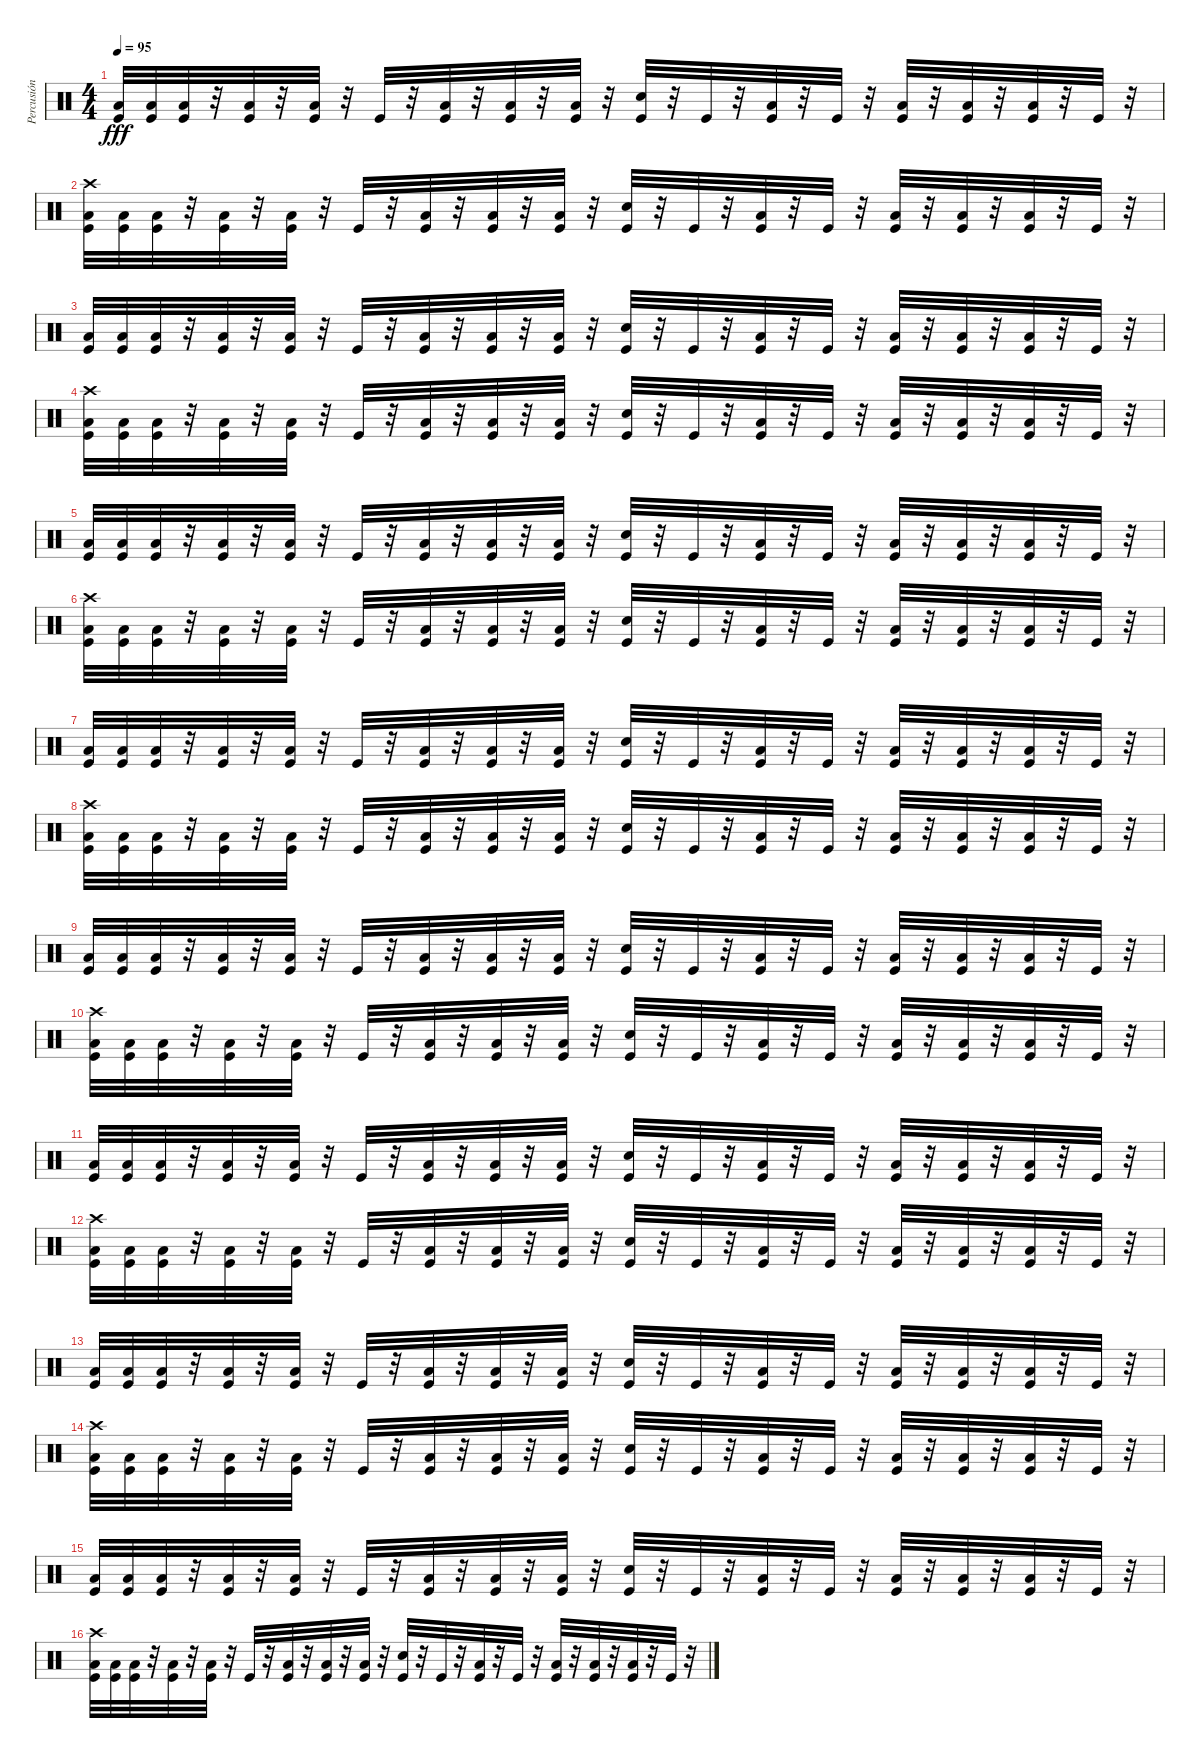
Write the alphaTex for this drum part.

\track ("Percusión" "Percusión") {instrument percussion}
\staff {score}
\articulation defaults
\ts (4 4)
\tempo 95
\clef neutral
\ks c
("Low Floor Tom (hit)" "Kick (hit)").32{dy fff} ("Low Floor Tom (hit)" "Kick (hit)").32 ("Low Floor Tom (hit)" "Kick (hit)").32 r.32 ("Low Floor Tom (hit)" "Kick (hit)").32 r.32 ("Low Floor Tom (hit)" "Kick (hit)").32 r.32 "Kick (hit)".32 r.32 ("Low Floor Tom (hit)" "Kick (hit)").32 r.32 ("Low Floor Tom (hit)" "Kick (hit)").32 r.32 ("Low Floor Tom (hit)" "Kick (hit)").32 r.32 ("Snare (hit) 2" "Kick (hit)").32 r.32 "Kick (hit)".32 r.32 ("Low Floor Tom (hit)" "Kick (hit)").32 r.32 "Kick (hit)".32 r.32 ("Low Floor Tom (hit)" "Kick (hit)").32 r.32 ("Low Floor Tom (hit)" "Kick (hit)").32 r.32 ("Low Floor Tom (hit)" "Kick (hit)").32 r.32 "Kick (hit)".32 r.32 |
("Crash high (hit)" "Low Floor Tom (hit)" "Kick (hit)").32 ("Low Floor Tom (hit)" "Kick (hit)").32 ("Low Floor Tom (hit)" "Kick (hit)").32 r.32 ("Low Floor Tom (hit)" "Kick (hit)").32 r.32 ("Low Floor Tom (hit)" "Kick (hit)").32 r.32 "Kick (hit)".32 r.32 ("Low Floor Tom (hit)" "Kick (hit)").32 r.32 ("Low Floor Tom (hit)" "Kick (hit)").32 r.32 ("Low Floor Tom (hit)" "Kick (hit)").32 r.32 ("Snare (hit) 2" "Kick (hit)").32 r.32 "Kick (hit)".32 r.32 ("Low Floor Tom (hit)" "Kick (hit)").32 r.32 "Kick (hit)".32 r.32 ("Low Floor Tom (hit)" "Kick (hit)").32 r.32 ("Low Floor Tom (hit)" "Kick (hit)").32 r.32 ("Low Floor Tom (hit)" "Kick (hit)").32 r.32 "Kick (hit)".32 r.32 |
("Low Floor Tom (hit)" "Kick (hit)").32 ("Low Floor Tom (hit)" "Kick (hit)").32 ("Low Floor Tom (hit)" "Kick (hit)").32 r.32 ("Low Floor Tom (hit)" "Kick (hit)").32 r.32 ("Low Floor Tom (hit)" "Kick (hit)").32 r.32 "Kick (hit)".32 r.32 ("Low Floor Tom (hit)" "Kick (hit)").32 r.32 ("Low Floor Tom (hit)" "Kick (hit)").32 r.32 ("Low Floor Tom (hit)" "Kick (hit)").32 r.32 ("Snare (hit) 2" "Kick (hit)").32 r.32 "Kick (hit)".32 r.32 ("Low Floor Tom (hit)" "Kick (hit)").32 r.32 "Kick (hit)".32 r.32 ("Low Floor Tom (hit)" "Kick (hit)").32 r.32 ("Low Floor Tom (hit)" "Kick (hit)").32 r.32 ("Low Floor Tom (hit)" "Kick (hit)").32 r.32 "Kick (hit)".32 r.32 |
("Crash high (hit)" "Low Floor Tom (hit)" "Kick (hit)").32 ("Low Floor Tom (hit)" "Kick (hit)").32 ("Low Floor Tom (hit)" "Kick (hit)").32 r.32 ("Low Floor Tom (hit)" "Kick (hit)").32 r.32 ("Low Floor Tom (hit)" "Kick (hit)").32 r.32 "Kick (hit)".32 r.32 ("Low Floor Tom (hit)" "Kick (hit)").32 r.32 ("Low Floor Tom (hit)" "Kick (hit)").32 r.32 ("Low Floor Tom (hit)" "Kick (hit)").32 r.32 ("Snare (hit) 2" "Kick (hit)").32 r.32 "Kick (hit)".32 r.32 ("Low Floor Tom (hit)" "Kick (hit)").32 r.32 "Kick (hit)".32 r.32 ("Low Floor Tom (hit)" "Kick (hit)").32 r.32 ("Low Floor Tom (hit)" "Kick (hit)").32 r.32 ("Low Floor Tom (hit)" "Kick (hit)").32 r.32 "Kick (hit)".32 r.32 |
("Low Floor Tom (hit)" "Kick (hit)").32 ("Low Floor Tom (hit)" "Kick (hit)").32 ("Low Floor Tom (hit)" "Kick (hit)").32 r.32 ("Low Floor Tom (hit)" "Kick (hit)").32 r.32 ("Low Floor Tom (hit)" "Kick (hit)").32 r.32 "Kick (hit)".32 r.32 ("Low Floor Tom (hit)" "Kick (hit)").32 r.32 ("Low Floor Tom (hit)" "Kick (hit)").32 r.32 ("Low Floor Tom (hit)" "Kick (hit)").32 r.32 ("Snare (hit) 2" "Kick (hit)").32 r.32 "Kick (hit)".32 r.32 ("Low Floor Tom (hit)" "Kick (hit)").32 r.32 "Kick (hit)".32 r.32 ("Low Floor Tom (hit)" "Kick (hit)").32 r.32 ("Low Floor Tom (hit)" "Kick (hit)").32 r.32 ("Low Floor Tom (hit)" "Kick (hit)").32 r.32 "Kick (hit)".32 r.32 |
("Crash high (hit)" "Low Floor Tom (hit)" "Kick (hit)").32 ("Low Floor Tom (hit)" "Kick (hit)").32 ("Low Floor Tom (hit)" "Kick (hit)").32 r.32 ("Low Floor Tom (hit)" "Kick (hit)").32 r.32 ("Low Floor Tom (hit)" "Kick (hit)").32 r.32 "Kick (hit)".32 r.32 ("Low Floor Tom (hit)" "Kick (hit)").32 r.32 ("Low Floor Tom (hit)" "Kick (hit)").32 r.32 ("Low Floor Tom (hit)" "Kick (hit)").32 r.32 ("Snare (hit) 2" "Kick (hit)").32 r.32 "Kick (hit)".32 r.32 ("Low Floor Tom (hit)" "Kick (hit)").32 r.32 "Kick (hit)".32 r.32 ("Low Floor Tom (hit)" "Kick (hit)").32 r.32 ("Low Floor Tom (hit)" "Kick (hit)").32 r.32 ("Low Floor Tom (hit)" "Kick (hit)").32 r.32 "Kick (hit)".32 r.32 |
("Low Floor Tom (hit)" "Kick (hit)").32 ("Low Floor Tom (hit)" "Kick (hit)").32 ("Low Floor Tom (hit)" "Kick (hit)").32 r.32 ("Low Floor Tom (hit)" "Kick (hit)").32 r.32 ("Low Floor Tom (hit)" "Kick (hit)").32 r.32 "Kick (hit)".32 r.32 ("Low Floor Tom (hit)" "Kick (hit)").32 r.32 ("Low Floor Tom (hit)" "Kick (hit)").32 r.32 ("Low Floor Tom (hit)" "Kick (hit)").32 r.32 ("Snare (hit) 2" "Kick (hit)").32 r.32 "Kick (hit)".32 r.32 ("Low Floor Tom (hit)" "Kick (hit)").32 r.32 "Kick (hit)".32 r.32 ("Low Floor Tom (hit)" "Kick (hit)").32 r.32 ("Low Floor Tom (hit)" "Kick (hit)").32 r.32 ("Low Floor Tom (hit)" "Kick (hit)").32 r.32 "Kick (hit)".32 r.32 |
("Crash high (hit)" "Low Floor Tom (hit)" "Kick (hit)").32 ("Low Floor Tom (hit)" "Kick (hit)").32 ("Low Floor Tom (hit)" "Kick (hit)").32 r.32 ("Low Floor Tom (hit)" "Kick (hit)").32 r.32 ("Low Floor Tom (hit)" "Kick (hit)").32 r.32 "Kick (hit)".32 r.32 ("Low Floor Tom (hit)" "Kick (hit)").32 r.32 ("Low Floor Tom (hit)" "Kick (hit)").32 r.32 ("Low Floor Tom (hit)" "Kick (hit)").32 r.32 ("Snare (hit) 2" "Kick (hit)").32 r.32 "Kick (hit)".32 r.32 ("Low Floor Tom (hit)" "Kick (hit)").32 r.32 "Kick (hit)".32 r.32 ("Low Floor Tom (hit)" "Kick (hit)").32 r.32 ("Low Floor Tom (hit)" "Kick (hit)").32 r.32 ("Low Floor Tom (hit)" "Kick (hit)").32 r.32 "Kick (hit)".32 r.32 |
("Low Floor Tom (hit)" "Kick (hit)").32 ("Low Floor Tom (hit)" "Kick (hit)").32 ("Low Floor Tom (hit)" "Kick (hit)").32 r.32 ("Low Floor Tom (hit)" "Kick (hit)").32 r.32 ("Low Floor Tom (hit)" "Kick (hit)").32 r.32 "Kick (hit)".32 r.32 ("Low Floor Tom (hit)" "Kick (hit)").32 r.32 ("Low Floor Tom (hit)" "Kick (hit)").32 r.32 ("Low Floor Tom (hit)" "Kick (hit)").32 r.32 ("Snare (hit) 2" "Kick (hit)").32 r.32 "Kick (hit)".32 r.32 ("Low Floor Tom (hit)" "Kick (hit)").32 r.32 "Kick (hit)".32 r.32 ("Low Floor Tom (hit)" "Kick (hit)").32 r.32 ("Low Floor Tom (hit)" "Kick (hit)").32 r.32 ("Low Floor Tom (hit)" "Kick (hit)").32 r.32 "Kick (hit)".32 r.32 |
("Crash high (hit)" "Low Floor Tom (hit)" "Kick (hit)").32 ("Low Floor Tom (hit)" "Kick (hit)").32 ("Low Floor Tom (hit)" "Kick (hit)").32 r.32 ("Low Floor Tom (hit)" "Kick (hit)").32 r.32 ("Low Floor Tom (hit)" "Kick (hit)").32 r.32 "Kick (hit)".32 r.32 ("Low Floor Tom (hit)" "Kick (hit)").32 r.32 ("Low Floor Tom (hit)" "Kick (hit)").32 r.32 ("Low Floor Tom (hit)" "Kick (hit)").32 r.32 ("Snare (hit) 2" "Kick (hit)").32 r.32 "Kick (hit)".32 r.32 ("Low Floor Tom (hit)" "Kick (hit)").32 r.32 "Kick (hit)".32 r.32 ("Low Floor Tom (hit)" "Kick (hit)").32 r.32 ("Low Floor Tom (hit)" "Kick (hit)").32 r.32 ("Low Floor Tom (hit)" "Kick (hit)").32 r.32 "Kick (hit)".32 r.32 |
("Low Floor Tom (hit)" "Kick (hit)").32 ("Low Floor Tom (hit)" "Kick (hit)").32 ("Low Floor Tom (hit)" "Kick (hit)").32 r.32 ("Low Floor Tom (hit)" "Kick (hit)").32 r.32 ("Low Floor Tom (hit)" "Kick (hit)").32 r.32 "Kick (hit)".32 r.32 ("Low Floor Tom (hit)" "Kick (hit)").32 r.32 ("Low Floor Tom (hit)" "Kick (hit)").32 r.32 ("Low Floor Tom (hit)" "Kick (hit)").32 r.32 ("Snare (hit) 2" "Kick (hit)").32 r.32 "Kick (hit)".32 r.32 ("Low Floor Tom (hit)" "Kick (hit)").32 r.32 "Kick (hit)".32 r.32 ("Low Floor Tom (hit)" "Kick (hit)").32 r.32 ("Low Floor Tom (hit)" "Kick (hit)").32 r.32 ("Low Floor Tom (hit)" "Kick (hit)").32 r.32 "Kick (hit)".32 r.32 |
("Crash high (hit)" "Low Floor Tom (hit)" "Kick (hit)").32 ("Low Floor Tom (hit)" "Kick (hit)").32 ("Low Floor Tom (hit)" "Kick (hit)").32 r.32 ("Low Floor Tom (hit)" "Kick (hit)").32 r.32 ("Low Floor Tom (hit)" "Kick (hit)").32 r.32 "Kick (hit)".32 r.32 ("Low Floor Tom (hit)" "Kick (hit)").32 r.32 ("Low Floor Tom (hit)" "Kick (hit)").32 r.32 ("Low Floor Tom (hit)" "Kick (hit)").32 r.32 ("Snare (hit) 2" "Kick (hit)").32 r.32 "Kick (hit)".32 r.32 ("Low Floor Tom (hit)" "Kick (hit)").32 r.32 "Kick (hit)".32 r.32 ("Low Floor Tom (hit)" "Kick (hit)").32 r.32 ("Low Floor Tom (hit)" "Kick (hit)").32 r.32 ("Low Floor Tom (hit)" "Kick (hit)").32 r.32 "Kick (hit)".32 r.32 |
("Low Floor Tom (hit)" "Kick (hit)").32 ("Low Floor Tom (hit)" "Kick (hit)").32 ("Low Floor Tom (hit)" "Kick (hit)").32 r.32 ("Low Floor Tom (hit)" "Kick (hit)").32 r.32 ("Low Floor Tom (hit)" "Kick (hit)").32 r.32 "Kick (hit)".32 r.32 ("Low Floor Tom (hit)" "Kick (hit)").32 r.32 ("Low Floor Tom (hit)" "Kick (hit)").32 r.32 ("Low Floor Tom (hit)" "Kick (hit)").32 r.32 ("Snare (hit) 2" "Kick (hit)").32 r.32 "Kick (hit)".32 r.32 ("Low Floor Tom (hit)" "Kick (hit)").32 r.32 "Kick (hit)".32 r.32 ("Low Floor Tom (hit)" "Kick (hit)").32 r.32 ("Low Floor Tom (hit)" "Kick (hit)").32 r.32 ("Low Floor Tom (hit)" "Kick (hit)").32 r.32 "Kick (hit)".32 r.32 |
("Crash high (hit)" "Low Floor Tom (hit)" "Kick (hit)").32 ("Low Floor Tom (hit)" "Kick (hit)").32 ("Low Floor Tom (hit)" "Kick (hit)").32 r.32 ("Low Floor Tom (hit)" "Kick (hit)").32 r.32 ("Low Floor Tom (hit)" "Kick (hit)").32 r.32 "Kick (hit)".32 r.32 ("Low Floor Tom (hit)" "Kick (hit)").32 r.32 ("Low Floor Tom (hit)" "Kick (hit)").32 r.32 ("Low Floor Tom (hit)" "Kick (hit)").32 r.32 ("Snare (hit) 2" "Kick (hit)").32 r.32 "Kick (hit)".32 r.32 ("Low Floor Tom (hit)" "Kick (hit)").32 r.32 "Kick (hit)".32 r.32 ("Low Floor Tom (hit)" "Kick (hit)").32 r.32 ("Low Floor Tom (hit)" "Kick (hit)").32 r.32 ("Low Floor Tom (hit)" "Kick (hit)").32 r.32 "Kick (hit)".32 r.32 |
("Low Floor Tom (hit)" "Kick (hit)").32 ("Low Floor Tom (hit)" "Kick (hit)").32 ("Low Floor Tom (hit)" "Kick (hit)").32 r.32 ("Low Floor Tom (hit)" "Kick (hit)").32 r.32 ("Low Floor Tom (hit)" "Kick (hit)").32 r.32 "Kick (hit)".32 r.32 ("Low Floor Tom (hit)" "Kick (hit)").32 r.32 ("Low Floor Tom (hit)" "Kick (hit)").32 r.32 ("Low Floor Tom (hit)" "Kick (hit)").32 r.32 ("Snare (hit) 2" "Kick (hit)").32 r.32 "Kick (hit)".32 r.32 ("Low Floor Tom (hit)" "Kick (hit)").32 r.32 "Kick (hit)".32 r.32 ("Low Floor Tom (hit)" "Kick (hit)").32 r.32 ("Low Floor Tom (hit)" "Kick (hit)").32 r.32 ("Low Floor Tom (hit)" "Kick (hit)").32 r.32 "Kick (hit)".32 r.32 |
("Crash high (hit)" "Low Floor Tom (hit)" "Kick (hit)").32 ("Low Floor Tom (hit)" "Kick (hit)").32 ("Low Floor Tom (hit)" "Kick (hit)").32 r.32 ("Low Floor Tom (hit)" "Kick (hit)").32 r.32 ("Low Floor Tom (hit)" "Kick (hit)").32 r.32 "Kick (hit)".32 r.32 ("Low Floor Tom (hit)" "Kick (hit)").32 r.32 ("Low Floor Tom (hit)" "Kick (hit)").32 r.32 ("Low Floor Tom (hit)" "Kick (hit)").32 r.32 ("Snare (hit) 2" "Kick (hit)").32 r.32 "Kick (hit)".32 r.32 ("Low Floor Tom (hit)" "Kick (hit)").32 r.32 "Kick (hit)".32 r.32 ("Low Floor Tom (hit)" "Kick (hit)").32 r.32 ("Low Floor Tom (hit)" "Kick (hit)").32 r.32 ("Low Floor Tom (hit)" "Kick (hit)").32 r.32 "Kick (hit)".32 r.32
